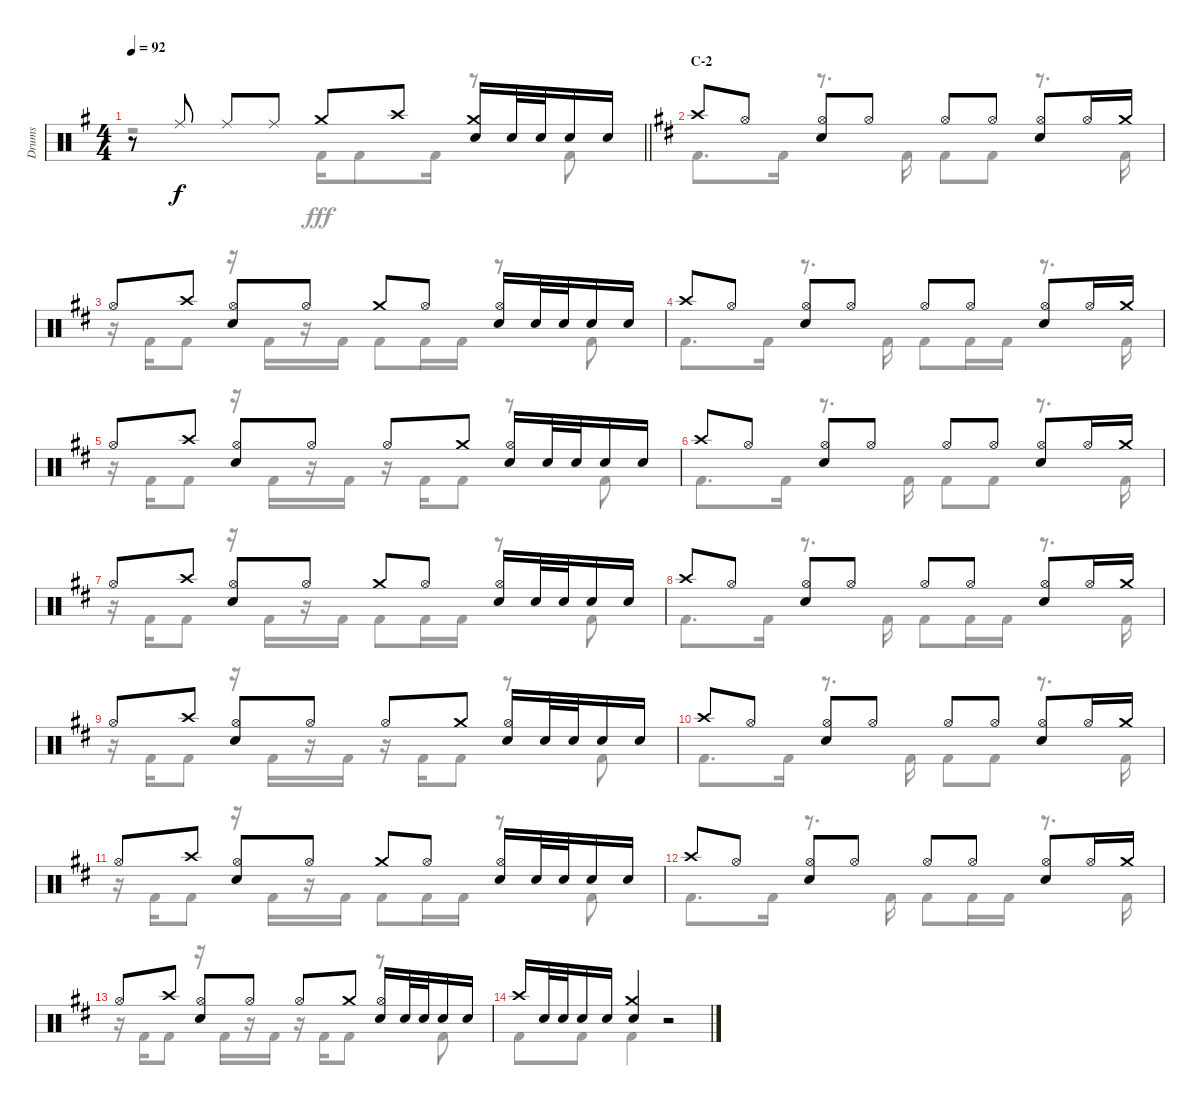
\track ("Drums" "Drums") {instrument percussion}
\staff {score}
\articulation defaults
\voice
\ts (4 4)
\tempo 92
\clef neutral
\barLineRight lightlight
\ks g
r.8{dy f} "Ride (middle)".8 "Ride (middle)".8 "Ride (middle)".8 "Crash medium (hit)".8 "Crash high (hit)".8 ("Crash medium (hit)" "Snare (hit) 2").16 "Snare (hit) 2".32 "Snare (hit) 2".32 "Snare (hit) 2".16 "Snare (hit) 2".16 |
\section ("" "C-2")
\ks d "Crash high (hit)".8 "Hi-Hat (open)".8
("Hi-Hat (open)" "Snare (hit) 2").8 "Hi-Hat (open)".8 "Hi-Hat (open)".8 "Hi-Hat (open)".8 ("Hi-Hat (open)" "Snare (hit) 2").8 "Hi-Hat (open)".16 "Crash medium (hit)".16 |
"Hi-Hat (open)".8 "Crash high (hit)".8 ("Hi-Hat (open)" "Snare (hit) 2").8 "Hi-Hat (open)".8 "Crash medium (hit)".8 "Hi-Hat (open)".8 ("Hi-Hat (open)" "Snare (hit) 2").16 "Snare (hit) 2".32 "Snare (hit) 2".32 "Snare (hit) 2".16 "Snare (hit) 2".16 |
"Crash high (hit)".8 "Hi-Hat (open)".8 ("Hi-Hat (open)" "Snare (hit) 2").8 "Hi-Hat (open)".8 "Hi-Hat (open)".8 "Hi-Hat (open)".8 ("Hi-Hat (open)" "Snare (hit) 2").8 "Hi-Hat (open)".16 "Crash medium (hit)".16 |
"Hi-Hat (open)".8 "Crash high (hit)".8 ("Hi-Hat (open)" "Snare (hit) 2").8 "Hi-Hat (open)".8 "Hi-Hat (open)".8 "Crash medium (hit)".8 ("Hi-Hat (open)" "Snare (hit) 2").16 "Snare (hit) 2".32 "Snare (hit) 2".32 "Snare (hit) 2".16 "Snare (hit) 2".16 |
"Crash high (hit)".8 "Hi-Hat (open)".8 ("Hi-Hat (open)" "Snare (hit) 2").8 "Hi-Hat (open)".8 "Hi-Hat (open)".8 "Hi-Hat (open)".8 ("Hi-Hat (open)" "Snare (hit) 2").8 "Hi-Hat (open)".16 "Crash medium (hit)".16 |
"Hi-Hat (open)".8 "Crash high (hit)".8 ("Hi-Hat (open)" "Snare (hit) 2").8 "Hi-Hat (open)".8 "Crash medium (hit)".8 "Hi-Hat (open)".8 ("Hi-Hat (open)" "Snare (hit) 2").16 "Snare (hit) 2".32 "Snare (hit) 2".32 "Snare (hit) 2".16 "Snare (hit) 2".16 |
"Crash high (hit)".8 "Hi-Hat (open)".8 ("Hi-Hat (open)" "Snare (hit) 2").8 "Hi-Hat (open)".8 "Hi-Hat (open)".8 "Hi-Hat (open)".8 ("Hi-Hat (open)" "Snare (hit) 2").8 "Hi-Hat (open)".16 "Crash medium (hit)".16 |
"Hi-Hat (open)".8 "Crash high (hit)".8 ("Hi-Hat (open)" "Snare (hit) 2").8 "Hi-Hat (open)".8 "Hi-Hat (open)".8 "Crash medium (hit)".8 ("Hi-Hat (open)" "Snare (hit) 2").16 "Snare (hit) 2".32 "Snare (hit) 2".32 "Snare (hit) 2".16 "Snare (hit) 2".16 |
"Crash high (hit)".8 "Hi-Hat (open)".8 ("Hi-Hat (open)" "Snare (hit) 2").8 "Hi-Hat (open)".8 "Hi-Hat (open)".8 "Hi-Hat (open)".8 ("Hi-Hat (open)" "Snare (hit) 2").8 "Hi-Hat (open)".16 "Crash medium (hit)".16 |
"Hi-Hat (open)".8 "Crash high (hit)".8 ("Hi-Hat (open)" "Snare (hit) 2").8 "Hi-Hat (open)".8 "Crash medium (hit)".8 "Hi-Hat (open)".8 ("Hi-Hat (open)" "Snare (hit) 2").16 "Snare (hit) 2".32 "Snare (hit) 2".32 "Snare (hit) 2".16 "Snare (hit) 2".16 |
"Crash high (hit)".8 "Hi-Hat (open)".8 ("Hi-Hat (open)" "Snare (hit) 2").8 "Hi-Hat (open)".8 "Hi-Hat (open)".8 "Hi-Hat (open)".8 ("Hi-Hat (open)" "Snare (hit) 2").8 "Hi-Hat (open)".16 "Crash medium (hit)".16 |
"Hi-Hat (open)".8 "Crash high (hit)".8 ("Hi-Hat (open)" "Snare (hit) 2").8 "Hi-Hat (open)".8 "Hi-Hat (open)".8 "Crash medium (hit)".8 ("Hi-Hat (open)" "Snare (hit) 2").16 "Snare (hit) 2".32 "Snare (hit) 2".32 "Snare (hit) 2".16 "Snare (hit) 2".16 |
"Crash high (hit)".16 "Snare (hit) 2".32 "Snare (hit) 2".32 "Snare (hit) 2".16 "Snare (hit) 2".16 ("Crash medium (hit)" "Snare (hit) 2").4 r.2
\voice
\clef neutral
\ottava regular
\simile none
\barLineRight lightlight
\ks g
r.2{dy fff} "Kick (hit) 2".16 "Kick (hit) 2".8 "Kick (hit) 2".16 r.8 "Kick (hit) 2".8 |
\ks d "Kick (hit) 2".8{d} "Kick (hit) 2".16
r.8{d} "Kick (hit) 2".16 "Kick (hit) 2".8 "Kick (hit) 2".8 r.8{d} "Kick (hit) 2".16 |
r.16 "Kick (hit) 2".16 "Kick (hit) 2".8 r.16 "Kick (hit) 2".16 r.16 "Kick (hit) 2".16 "Kick (hit) 2".8 "Kick (hit) 2".16 "Kick (hit) 2".16 r.8 "Kick (hit) 2".8 |
"Kick (hit) 2".8{d} "Kick (hit) 2".16 r.8{d} "Kick (hit) 2".16 "Kick (hit) 2".8 "Kick (hit) 2".16 "Kick (hit) 2".16 r.8{d} "Kick (hit) 2".16 |
r.16 "Kick (hit) 2".16 "Kick (hit) 2".8 r.16 "Kick (hit) 2".16 r.16 "Kick (hit) 2".16 r.16 "Kick (hit) 2".16 "Kick (hit) 2".8 r.8 "Kick (hit) 2".8 |
"Kick (hit) 2".8{d} "Kick (hit) 2".16 r.8{d} "Kick (hit) 2".16 "Kick (hit) 2".8 "Kick (hit) 2".8 r.8{d} "Kick (hit) 2".16 |
r.16 "Kick (hit) 2".16 "Kick (hit) 2".8 r.16 "Kick (hit) 2".16 r.16 "Kick (hit) 2".16 "Kick (hit) 2".8 "Kick (hit) 2".16 "Kick (hit) 2".16 r.8 "Kick (hit) 2".8 |
"Kick (hit) 2".8{d} "Kick (hit) 2".16 r.8{d} "Kick (hit) 2".16 "Kick (hit) 2".8 "Kick (hit) 2".16 "Kick (hit) 2".16 r.8{d} "Kick (hit) 2".16 |
r.16 "Kick (hit) 2".16 "Kick (hit) 2".8 r.16 "Kick (hit) 2".16 r.16 "Kick (hit) 2".16 r.16 "Kick (hit) 2".16 "Kick (hit) 2".8 r.8 "Kick (hit) 2".8 |
"Kick (hit) 2".8{d} "Kick (hit) 2".16 r.8{d} "Kick (hit) 2".16 "Kick (hit) 2".8 "Kick (hit) 2".8 r.8{d} "Kick (hit) 2".16 |
r.16 "Kick (hit) 2".16 "Kick (hit) 2".8 r.16 "Kick (hit) 2".16 r.16 "Kick (hit) 2".16 "Kick (hit) 2".8 "Kick (hit) 2".16 "Kick (hit) 2".16 r.8 "Kick (hit) 2".8 |
"Kick (hit) 2".8{d} "Kick (hit) 2".16 r.8{d} "Kick (hit) 2".16 "Kick (hit) 2".8 "Kick (hit) 2".16 "Kick (hit) 2".16 r.8{d} "Kick (hit) 2".16 |
r.16 "Kick (hit) 2".16 "Kick (hit) 2".8 r.16 "Kick (hit) 2".16 r.16 "Kick (hit) 2".16 r.16 "Kick (hit) 2".16 "Kick (hit) 2".8 r.8 "Kick (hit) 2".8 |
"Kick (hit) 2".8 "Kick (hit) 2".8 "Kick (hit) 2".4 r.2
